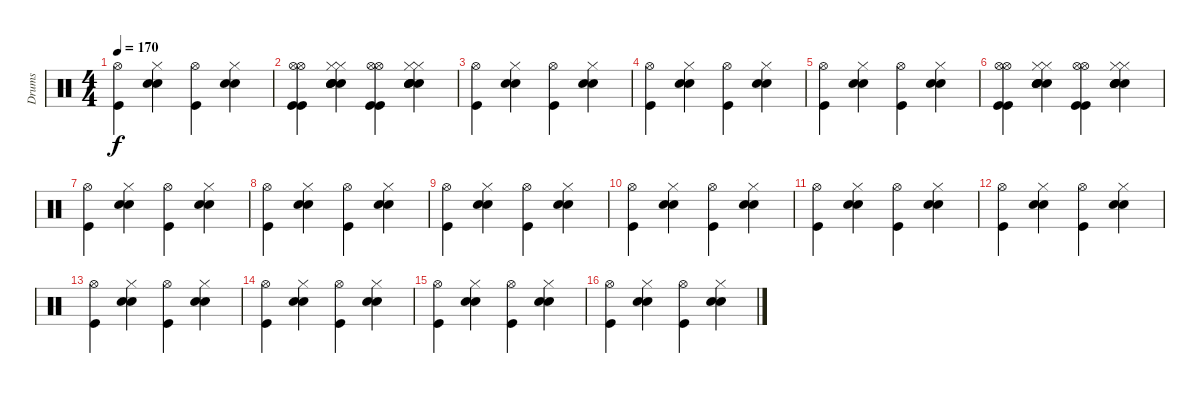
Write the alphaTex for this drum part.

\track ("Drums" "Drums") {instrument percussion}
\staff {score}
\articulation defaults
\ts (4 4)
\tempo 170
\clef neutral
\ks c
("Hi-Hat (open)" "Kick (hit)").4{dy f} ("Hi-Hat (closed)" "Snare (hit) 2" "Electric Snare (hit)").4 ("Hi-Hat (open)" "Kick (hit)").4 ("Hi-Hat (closed)" "Snare (hit) 2" "Electric Snare (hit)").4 |
("Hi-Hat (open)" "Kick (hit)" "Hi-Hat (open)" "Kick (hit)").4 ("Hi-Hat (closed)" "Snare (hit) 2" "Electric Snare (hit)" "Hi-Hat (closed)" "Snare (hit) 2" "Electric Snare (hit)").4 ("Hi-Hat (open)" "Kick (hit)" "Hi-Hat (open)" "Kick (hit)").4 ("Hi-Hat (closed)" "Snare (hit) 2" "Electric Snare (hit)" "Hi-Hat (closed)" "Snare (hit) 2" "Electric Snare (hit)").4 |
("Hi-Hat (open)" "Kick (hit)").4 ("Hi-Hat (closed)" "Snare (hit) 2" "Electric Snare (hit)").4 ("Hi-Hat (open)" "Kick (hit)").4 ("Hi-Hat (closed)" "Snare (hit) 2" "Electric Snare (hit)").4 |
("Hi-Hat (open)" "Kick (hit)").4 ("Hi-Hat (closed)" "Snare (hit) 2" "Electric Snare (hit)").4 ("Hi-Hat (open)" "Kick (hit)").4 ("Hi-Hat (closed)" "Snare (hit) 2" "Electric Snare (hit)").4 |
("Hi-Hat (open)" "Kick (hit)").4 ("Hi-Hat (closed)" "Snare (hit) 2" "Electric Snare (hit)").4 ("Hi-Hat (open)" "Kick (hit)").4 ("Hi-Hat (closed)" "Snare (hit) 2" "Electric Snare (hit)").4 |
("Hi-Hat (open)" "Kick (hit)" "Hi-Hat (open)" "Kick (hit)").4 ("Hi-Hat (closed)" "Snare (hit) 2" "Electric Snare (hit)" "Hi-Hat (closed)" "Snare (hit) 2" "Electric Snare (hit)").4 ("Hi-Hat (open)" "Kick (hit)" "Hi-Hat (open)" "Kick (hit)").4 ("Hi-Hat (closed)" "Snare (hit) 2" "Electric Snare (hit)" "Hi-Hat (closed)" "Snare (hit) 2" "Electric Snare (hit)").4 |
("Hi-Hat (open)" "Kick (hit)").4 ("Hi-Hat (closed)" "Snare (hit) 2" "Electric Snare (hit)").4 ("Hi-Hat (open)" "Kick (hit)").4 ("Hi-Hat (closed)" "Snare (hit) 2" "Electric Snare (hit)").4 |
("Hi-Hat (open)" "Kick (hit)").4 ("Hi-Hat (closed)" "Snare (hit) 2" "Electric Snare (hit)").4 ("Hi-Hat (open)" "Kick (hit)").4 ("Hi-Hat (closed)" "Snare (hit) 2" "Electric Snare (hit)").4 |
("Hi-Hat (open)" "Kick (hit)").4 ("Hi-Hat (closed)" "Snare (hit) 2" "Electric Snare (hit)").4 ("Hi-Hat (open)" "Kick (hit)").4 ("Hi-Hat (closed)" "Snare (hit) 2" "Electric Snare (hit)").4 |
("Hi-Hat (open)" "Kick (hit)").4 ("Hi-Hat (closed)" "Snare (hit) 2" "Electric Snare (hit)").4 ("Hi-Hat (open)" "Kick (hit)").4 ("Hi-Hat (closed)" "Snare (hit) 2" "Electric Snare (hit)").4 |
("Hi-Hat (open)" "Kick (hit)").4 ("Hi-Hat (closed)" "Snare (hit) 2" "Electric Snare (hit)").4 ("Hi-Hat (open)" "Kick (hit)").4 ("Hi-Hat (closed)" "Snare (hit) 2" "Electric Snare (hit)").4 |
("Hi-Hat (open)" "Kick (hit)").4 ("Hi-Hat (closed)" "Snare (hit) 2" "Electric Snare (hit)").4 ("Hi-Hat (open)" "Kick (hit)").4 ("Hi-Hat (closed)" "Snare (hit) 2" "Electric Snare (hit)").4 |
("Hi-Hat (open)" "Kick (hit)").4 ("Hi-Hat (closed)" "Snare (hit) 2" "Electric Snare (hit)").4 ("Hi-Hat (open)" "Kick (hit)").4 ("Hi-Hat (closed)" "Snare (hit) 2" "Electric Snare (hit)").4 |
("Hi-Hat (open)" "Kick (hit)").4 ("Hi-Hat (closed)" "Snare (hit) 2" "Electric Snare (hit)").4 ("Hi-Hat (open)" "Kick (hit)").4 ("Hi-Hat (closed)" "Snare (hit) 2" "Electric Snare (hit)").4 |
("Hi-Hat (open)" "Kick (hit)").4 ("Hi-Hat (closed)" "Snare (hit) 2" "Electric Snare (hit)").4 ("Hi-Hat (open)" "Kick (hit)").4 ("Hi-Hat (closed)" "Snare (hit) 2" "Electric Snare (hit)").4 |
("Hi-Hat (open)" "Kick (hit)").4 ("Hi-Hat (closed)" "Snare (hit) 2" "Electric Snare (hit)").4 ("Hi-Hat (open)" "Kick (hit)").4 ("Hi-Hat (closed)" "Snare (hit) 2" "Electric Snare (hit)").4
